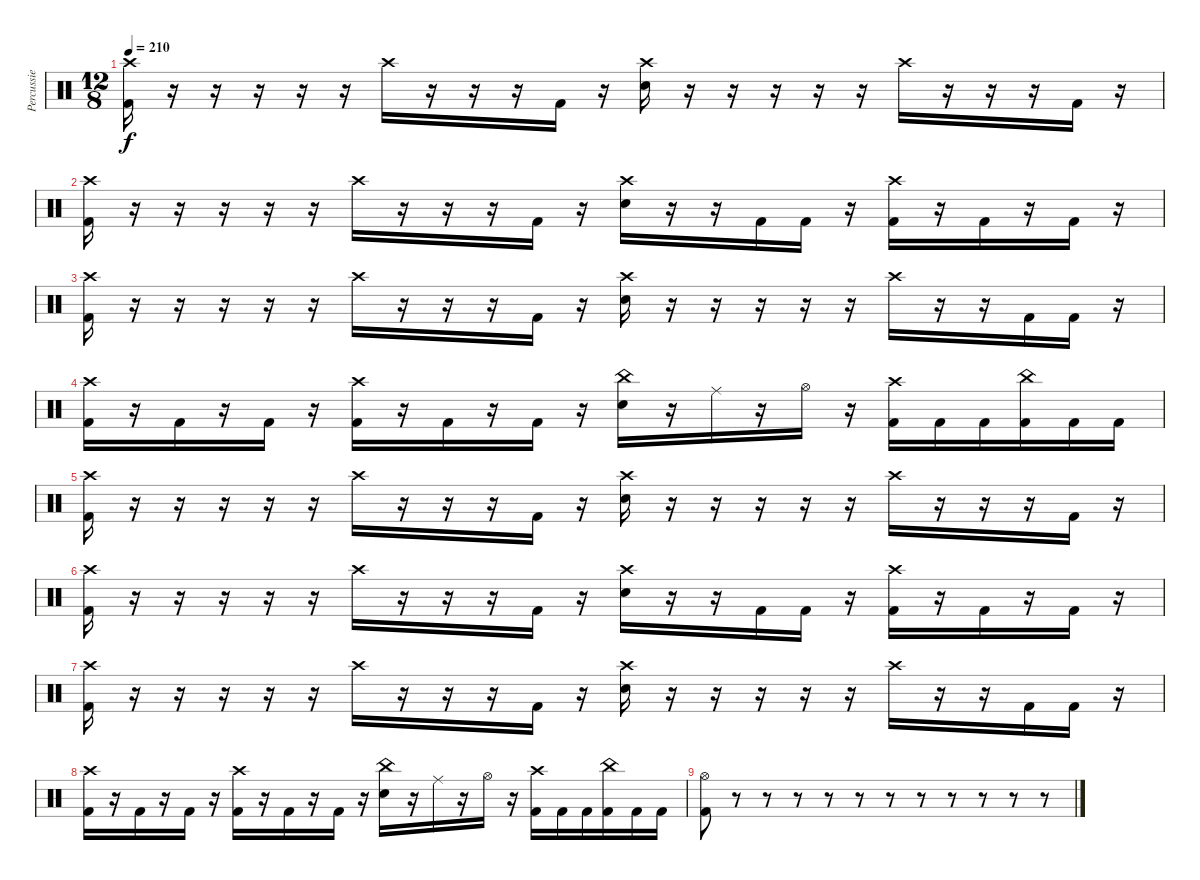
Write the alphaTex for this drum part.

\track ("Percussie" "Percussie") {instrument percussion}
\staff {score}
\articulation defaults
\ts (12 8)
\tempo 210
\clef neutral
\ks c
("Crash high (hit)" "Kick (hit) 2").16{dy f} r.16 r.16 r.16 r.16 r.16 "Crash high (hit)".16 r.16 r.16 r.16 "Kick (hit) 2".16 r.16 ("Crash high (hit)" "Snare (hit) 2").16 r.16 r.16 r.16 r.16 r.16 "Crash high (hit)".16 r.16 r.16 r.16 "Kick (hit) 2".16 r.16 |
("Crash high (hit)" "Kick (hit) 2").16 r.16 r.16 r.16 r.16 r.16 "Crash high (hit)".16 r.16 r.16 r.16 "Kick (hit) 2".16 r.16 ("Crash high (hit)" "Snare (hit) 2").16 r.16 r.16 "Kick (hit) 2".16 "Kick (hit) 2".16 r.16 ("Crash high (hit)" "Kick (hit) 2").16 r.16 "Kick (hit) 2".16 r.16 "Kick (hit) 2".16 r.16 |
("Crash high (hit)" "Kick (hit) 2").16 r.16 r.16 r.16 r.16 r.16 "Crash high (hit)".16 r.16 r.16 r.16 "Kick (hit) 2".16 r.16 ("Crash high (hit)" "Snare (hit) 2").16 r.16 r.16 r.16 r.16 r.16 "Crash high (hit)".16 r.16 r.16 "Kick (hit) 2".16 "Kick (hit) 2".16 r.16 |
("Crash high (hit)" "Kick (hit) 2").16 r.16 "Kick (hit) 2".16 r.16 "Kick (hit) 2".16 r.16 ("Crash high (hit)" "Kick (hit) 2").16 r.16 "Kick (hit) 2".16 r.16 "Kick (hit) 2".16 r.16 ("China (hit)" "Snare (hit) 2").16 r.16 "Ride (middle)".16 r.16 "Hi-Hat (open)".16 r.16 ("Crash high (hit)" "Kick (hit) 2").16 "Kick (hit) 2".16 "Kick (hit) 2".16 ("China (hit)" "Kick (hit) 2").16 "Kick (hit) 2".16 "Kick (hit) 2".16 |
("Crash high (hit)" "Kick (hit) 2").16 r.16 r.16 r.16 r.16 r.16 "Crash high (hit)".16 r.16 r.16 r.16 "Kick (hit) 2".16 r.16 ("Crash high (hit)" "Snare (hit) 2").16 r.16 r.16 r.16 r.16 r.16 "Crash high (hit)".16 r.16 r.16 r.16 "Kick (hit) 2".16 r.16 |
("Crash high (hit)" "Kick (hit) 2").16 r.16 r.16 r.16 r.16 r.16 "Crash high (hit)".16 r.16 r.16 r.16 "Kick (hit) 2".16 r.16 ("Crash high (hit)" "Snare (hit) 2").16 r.16 r.16 "Kick (hit) 2".16 "Kick (hit) 2".16 r.16 ("Crash high (hit)" "Kick (hit) 2").16 r.16 "Kick (hit) 2".16 r.16 "Kick (hit) 2".16 r.16 |
("Crash high (hit)" "Kick (hit) 2").16 r.16 r.16 r.16 r.16 r.16 "Crash high (hit)".16 r.16 r.16 r.16 "Kick (hit) 2".16 r.16 ("Crash high (hit)" "Snare (hit) 2").16 r.16 r.16 r.16 r.16 r.16 "Crash high (hit)".16 r.16 r.16 "Kick (hit) 2".16 "Kick (hit) 2".16 r.16 |
("Crash high (hit)" "Kick (hit) 2").16 r.16 "Kick (hit) 2".16 r.16 "Kick (hit) 2".16 r.16 ("Crash high (hit)" "Kick (hit) 2").16 r.16 "Kick (hit) 2".16 r.16 "Kick (hit) 2".16 r.16 ("China (hit)" "Snare (hit) 2").16 r.16 "Ride (middle)".16 r.16 "Hi-Hat (open)".16 r.16 ("Crash high (hit)" "Kick (hit) 2").16 "Kick (hit) 2".16 "Kick (hit) 2".16 ("China (hit)" "Kick (hit) 2").16 "Kick (hit) 2".16 "Kick (hit) 2".16 |
("Hi-Hat (open)" "Kick (hit) 2").8 r.8 r.8 r.8 r.8 r.8 r.8 r.8 r.8 r.8 r.8 r.8
